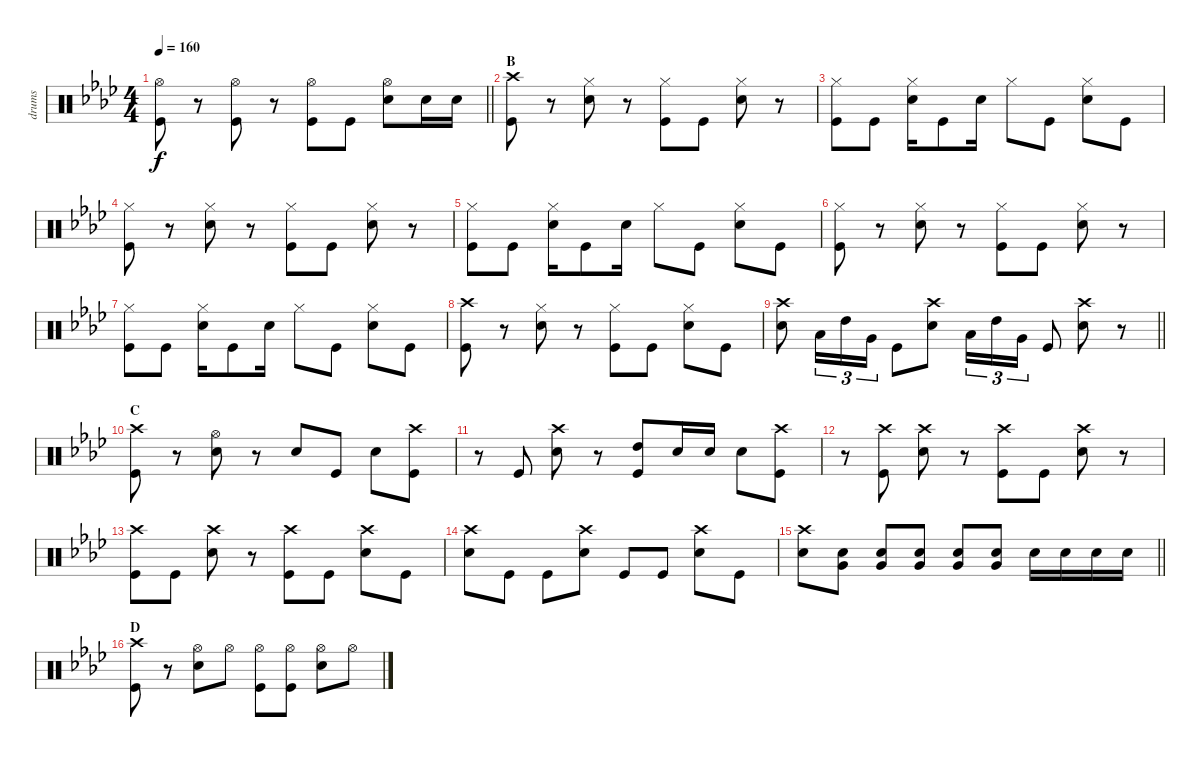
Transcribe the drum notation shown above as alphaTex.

\track ("drums" "drums") {instrument percussion}
\staff {score}
\articulation defaults
\ts (4 4)
\tempo 160
\clef neutral
\barLineRight lightlight
\ks ab
("Hi-Hat (open)" "Kick (hit)").8{dy f} r.8 ("Hi-Hat (open)" "Kick (hit)").8 r.8 ("Hi-Hat (open)" "Kick (hit)").8 "Kick (hit)".8 ("Hi-Hat (open)" "Snare (hit) 2").8 "Snare (hit) 2".16 "Snare (hit) 2".16 |
\section ("" "B")
("Crash high (hit)" "Kick (hit)").8 r.8 ("Hi-Hat (closed)" "Snare (hit) 2").8 r.8 ("Hi-Hat (closed)" "Kick (hit)").8 "Kick (hit)".8 ("Hi-Hat (closed)" "Snare (hit) 2").8 r.8 |
("Hi-Hat (closed)" "Kick (hit)").8 "Kick (hit)".8 ("Hi-Hat (closed)" "Snare (hit) 2").16 "Kick (hit)".8 "Snare (hit) 2".16 "Hi-Hat (closed)".8 "Kick (hit)".8 ("Hi-Hat (closed)" "Snare (hit) 2").8 "Kick (hit)".8 |
("Hi-Hat (closed)" "Kick (hit)").8 r.8 ("Hi-Hat (closed)" "Snare (hit) 2").8 r.8 ("Hi-Hat (closed)" "Kick (hit)").8 "Kick (hit)".8 ("Hi-Hat (closed)" "Snare (hit) 2").8 r.8 |
("Hi-Hat (closed)" "Kick (hit)").8 "Kick (hit)".8 ("Hi-Hat (closed)" "Snare (hit) 2").16 "Kick (hit)".8 "Snare (hit) 2".16 "Hi-Hat (closed)".8 "Kick (hit)".8 ("Hi-Hat (closed)" "Snare (hit) 2").8 "Kick (hit)".8 |
("Hi-Hat (closed)" "Kick (hit)").8 r.8 ("Hi-Hat (closed)" "Snare (hit) 2").8 r.8 ("Hi-Hat (closed)" "Kick (hit)").8 "Kick (hit)".8 ("Hi-Hat (closed)" "Snare (hit) 2").8 r.8 |
("Hi-Hat (closed)" "Kick (hit)").8 "Kick (hit)".8 ("Hi-Hat (closed)" "Snare (hit) 2").16 "Kick (hit)".8 "Snare (hit) 2".16 "Hi-Hat (closed)".8 "Kick (hit)".8 ("Hi-Hat (closed)" "Snare (hit) 2").8 "Kick (hit)".8 |
("Crash high (hit)" "Kick (hit)").8 r.8 ("Hi-Hat (closed)" "Snare (hit) 2").8 r.8 ("Hi-Hat (closed)" "Kick (hit)").8 "Kick (hit)".8 ("Hi-Hat (closed)" "Snare (hit) 2").8 "Kick (hit)".8 |
\barLineRight lightlight
("Crash high (hit)" "Snare (hit) 2").8 "Low Tom (hit)".16{tu (3 2)} "High Tom (hit)".16{tu (3 2)} "Very Low Tom (hit)".16{tu (3 2)} "Kick (hit)".8 ("Crash high (hit)" "Snare (hit) 2").8 "Low Tom (hit)".16{tu (3 2)} "High Tom (hit)".16{tu (3 2)} "Very Low Tom (hit)".16{tu (3 2)} "Kick (hit)".8 ("Crash high (hit)" "Snare (hit) 2").8 r.8 |
\section ("" "C")
("Crash high (hit)" "Kick (hit)").8 r.8 ("Hi-Hat (open)" "Snare (hit) 2").8 r.8 "Snare (hit) 2".8 "Kick (hit)".8 "Snare (hit) 2".8 ("Crash high (hit)" "Kick (hit)").8 |
r.8 "Kick (hit)".8 ("Crash high (hit)" "Snare (hit) 2").8 r.8 ("High Tom (hit)" "Kick (hit)").8 "Snare (hit) 2".16 "Snare (hit) 2".16 "Snare (hit) 2".8 ("Crash high (hit)" "Kick (hit)").8 |
r.8 ("Crash high (hit)" "Kick (hit)").8 ("Crash high (hit)" "Snare (hit) 2").8 r.8 ("Crash high (hit)" "Kick (hit)").8 "Kick (hit)".8 ("Crash high (hit)" "Snare (hit) 2").8 r.8 |
("Crash high (hit)" "Kick (hit)").8 "Kick (hit)".8 ("Crash high (hit)" "Snare (hit) 2").8 r.8 ("Crash high (hit)" "Kick (hit)").8 "Kick (hit)".8 ("Crash high (hit)" "Snare (hit) 2").8 "Kick (hit)".8 |
("Crash high (hit)" "Snare (hit) 2").8 "Kick (hit)".8 "Kick (hit)".8 ("Crash high (hit)" "Snare (hit) 2").8 "Kick (hit)".8 "Kick (hit)".8 ("Crash high (hit)" "Snare (hit) 2").8 "Kick (hit)".8 |
\barLineRight lightlight
("Crash high (hit)" "Snare (hit) 2").8 ("Snare (hit) 2" "Very Low Tom (hit)").8 ("Snare (hit) 2" "Very Low Tom (hit)").8 ("Snare (hit) 2" "Very Low Tom (hit)").8 ("Snare (hit) 2" "Very Low Tom (hit)").8 ("Snare (hit) 2" "Very Low Tom (hit)").8 "Snare (hit) 2".16 "Snare (hit) 2".16 "Snare (hit) 2".16 "Snare (hit) 2".16 |
\section ("" "D")
("Crash high (hit)" "Kick (hit)").8 r.8 ("Hi-Hat (open)" "Snare (hit) 2").8 "Hi-Hat (open)".8 ("Hi-Hat (open)" "Kick (hit)").8 ("Hi-Hat (open)" "Kick (hit)").8 ("Hi-Hat (open)" "Snare (hit) 2").8 "Hi-Hat (open)".8
